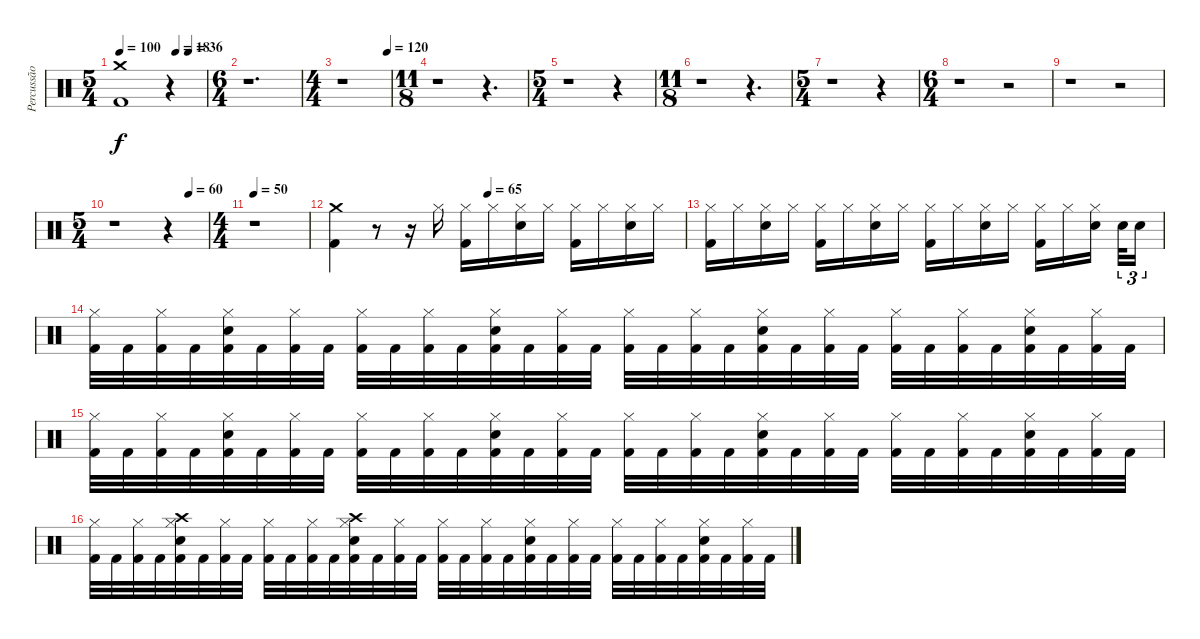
\track ("Percussão" "Percussão") {instrument percussion}
\staff {score}
\articulation defaults
\ts (5 4)
\tempo 100
\tempo (18 0.65)
\tempo (36 0.8)
\tempo 100
\clef neutral
\ks c
("Crash medium (hit)" "Kick (hit) 2").1{dy f} r.4 |
\ts (6 4)
r.1{d} |
\ts (4 4)
\tempo (120 0.9375)
r.1 |
\ts (11 8)
r.1 r.4{d} |
\ts (5 4)
r.1 r.4 |
\ts (11 8)
r.1 r.4{d} |
\ts (5 4)
r.1 r.4 |
\ts (6 4)
r.1 r.2 |
r.1 r.2 |
\ts (5 4)
\tempo (60 0.8)
r.1 r.4 |
\ts (4 4)
\tempo 50
r.1 |
\tempo (65 0.4375)
("Kick (hit) 2" "Crash medium (hit)").4 r.8 r.16 "Hi-Hat (closed)".16 ("Hi-Hat (closed)" "Kick (hit) 2").16 "Hi-Hat (closed)".16 ("Hi-Hat (closed)" "Snare (hit) 2").16 "Hi-Hat (closed)".16 ("Hi-Hat (closed)" "Kick (hit) 2").16 "Hi-Hat (closed)".16 ("Hi-Hat (closed)" "Snare (hit) 2").16 "Hi-Hat (closed)".16 |
("Hi-Hat (closed)" "Kick (hit) 2").16 "Hi-Hat (closed)".16 ("Hi-Hat (closed)" "Snare (hit) 2").16 "Hi-Hat (closed)".16 ("Hi-Hat (closed)" "Kick (hit) 2").16 "Hi-Hat (closed)".16 ("Hi-Hat (closed)" "Snare (hit) 2").16 "Hi-Hat (closed)".16 ("Hi-Hat (closed)" "Kick (hit) 2").16 "Hi-Hat (closed)".16 ("Hi-Hat (closed)" "Snare (hit) 2").16 "Hi-Hat (closed)".16 ("Hi-Hat (closed)" "Kick (hit) 2").16 "Hi-Hat (closed)".16 ("Hi-Hat (closed)" "Snare (hit) 2").16 "Snare (hit) 2".32{tu (3 2)} "Snare (hit) 2".16{tu (3 2)} |
("Hi-Hat (closed)" "Kick (hit) 2").32 "Kick (hit) 2".32 ("Hi-Hat (closed)" "Kick (hit) 2").32 "Kick (hit) 2".32 ("Hi-Hat (closed)" "Kick (hit) 2" "Snare (hit) 2").32 "Kick (hit) 2".32 ("Hi-Hat (closed)" "Kick (hit) 2").32 "Kick (hit) 2".32 ("Hi-Hat (closed)" "Kick (hit) 2").32 "Kick (hit) 2".32 ("Hi-Hat (closed)" "Kick (hit) 2").32 "Kick (hit) 2".32 ("Hi-Hat (closed)" "Kick (hit) 2" "Snare (hit) 2").32 "Kick (hit) 2".32 ("Hi-Hat (closed)" "Kick (hit) 2").32 "Kick (hit) 2".32 ("Hi-Hat (closed)" "Kick (hit) 2").32 "Kick (hit) 2".32 ("Hi-Hat (closed)" "Kick (hit) 2").32 "Kick (hit) 2".32 ("Hi-Hat (closed)" "Kick (hit) 2" "Snare (hit) 2").32 "Kick (hit) 2".32 ("Hi-Hat (closed)" "Kick (hit) 2").32 "Kick (hit) 2".32 ("Hi-Hat (closed)" "Kick (hit) 2").32 "Kick (hit) 2".32 ("Hi-Hat (closed)" "Kick (hit) 2").32 "Kick (hit) 2".32 ("Hi-Hat (closed)" "Kick (hit) 2" "Snare (hit) 2").32 "Kick (hit) 2".32 ("Hi-Hat (closed)" "Kick (hit) 2").32 "Kick (hit) 2".32 |
("Hi-Hat (closed)" "Kick (hit) 2").32 "Kick (hit) 2".32 ("Hi-Hat (closed)" "Kick (hit) 2").32 "Kick (hit) 2".32 ("Hi-Hat (closed)" "Kick (hit) 2" "Snare (hit) 2").32 "Kick (hit) 2".32 ("Hi-Hat (closed)" "Kick (hit) 2").32 "Kick (hit) 2".32 ("Hi-Hat (closed)" "Kick (hit) 2").32 "Kick (hit) 2".32 ("Hi-Hat (closed)" "Kick (hit) 2").32 "Kick (hit) 2".32 ("Hi-Hat (closed)" "Kick (hit) 2" "Snare (hit) 2").32 "Kick (hit) 2".32 ("Hi-Hat (closed)" "Kick (hit) 2").32 "Kick (hit) 2".32 ("Hi-Hat (closed)" "Kick (hit) 2").32 "Kick (hit) 2".32 ("Hi-Hat (closed)" "Kick (hit) 2").32 "Kick (hit) 2".32 ("Hi-Hat (closed)" "Kick (hit) 2" "Snare (hit) 2").32 "Kick (hit) 2".32 ("Hi-Hat (closed)" "Kick (hit) 2").32 "Kick (hit) 2".32 ("Hi-Hat (closed)" "Kick (hit) 2").32 "Kick (hit) 2".32 ("Hi-Hat (closed)" "Kick (hit) 2").32 "Kick (hit) 2".32 ("Hi-Hat (closed)" "Kick (hit) 2" "Snare (hit) 2").32 "Kick (hit) 2".32 ("Hi-Hat (closed)" "Kick (hit) 2").32 "Kick (hit) 2".32 |
("Hi-Hat (closed)" "Kick (hit) 2").32 "Kick (hit) 2".32 ("Hi-Hat (closed)" "Kick (hit) 2").32 "Kick (hit) 2".32 ("Hi-Hat (closed)" "Kick (hit) 2" "Snare (hit) 2" "Crash high (hit)").32 "Kick (hit) 2".32 ("Hi-Hat (closed)" "Kick (hit) 2").32 "Kick (hit) 2".32 ("Hi-Hat (closed)" "Kick (hit) 2").32 "Kick (hit) 2".32 ("Hi-Hat (closed)" "Kick (hit) 2").32 "Kick (hit) 2".32 ("Hi-Hat (closed)" "Kick (hit) 2" "Snare (hit) 2" "Crash high (hit)").32 "Kick (hit) 2".32 ("Hi-Hat (closed)" "Kick (hit) 2").32 "Kick (hit) 2".32 ("Hi-Hat (closed)" "Kick (hit) 2").32 "Kick (hit) 2".32 ("Hi-Hat (closed)" "Kick (hit) 2").32 "Kick (hit) 2".32 ("Hi-Hat (closed)" "Kick (hit) 2" "Snare (hit) 2").32 "Kick (hit) 2".32 ("Hi-Hat (closed)" "Kick (hit) 2").32 "Kick (hit) 2".32 ("Hi-Hat (closed)" "Kick (hit) 2").32 "Kick (hit) 2".32 ("Hi-Hat (closed)" "Kick (hit) 2").32 "Kick (hit) 2".32 ("Hi-Hat (closed)" "Kick (hit) 2" "Snare (hit) 2").32 "Kick (hit) 2".32 ("Hi-Hat (closed)" "Kick (hit) 2").32 "Kick (hit) 2".32
